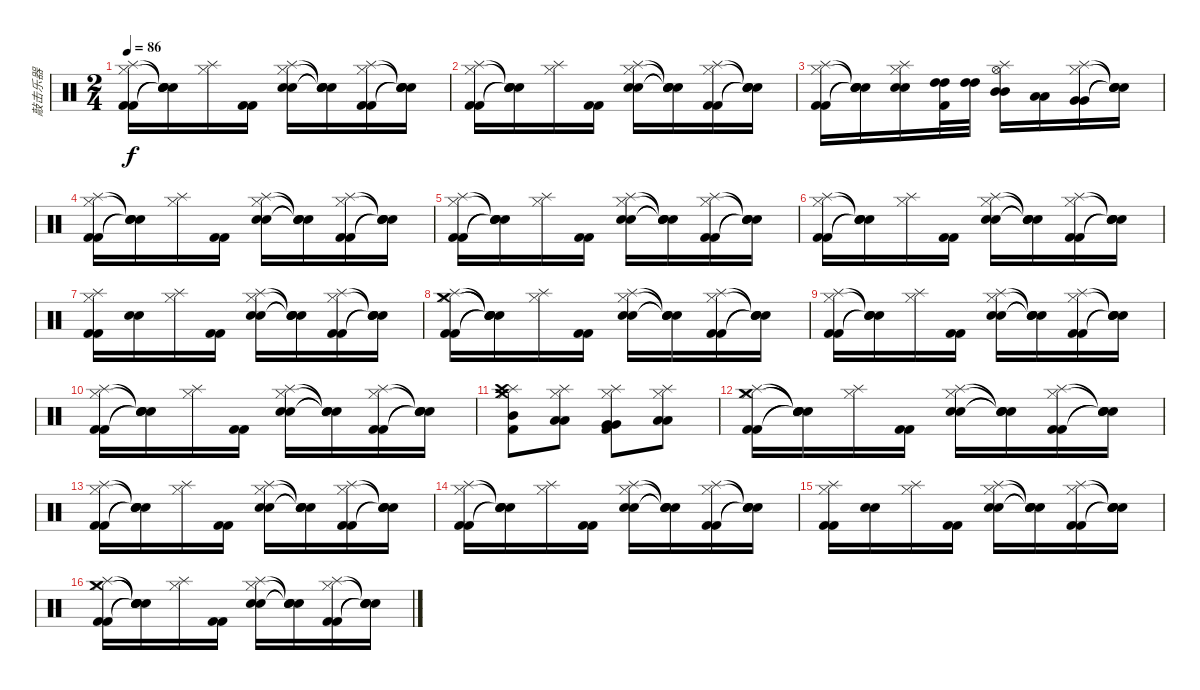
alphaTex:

\track ("敲击乐器" "敲击乐器") {instrument percussion}
\staff {score}
\articulation defaults
\ts (2 4)
\tempo 86
\clef neutral
\ks c
("Hi-Hat (closed)" "Splash (hit)" "Kick (hit) 2" "Kick (hit) 2").16{dy f} ("Snare (hit)"{t} "Snare (hit)"{t} "Snare (hit)"{t} "Snare (hit)"{t}).16 ("Hi-Hat (closed)" "Splash (hit)").16 ("Kick (hit) 2" "Kick (hit) 2").16 ("Hi-Hat (closed)" "Splash (hit)" "Electric Snare (hit)" "Electric Snare (hit)").16 ("Snare (hit)"{t} "Snare (hit)"{t} "Snare (hit)"{t} "Snare (hit)"{t}).16 ("Hi-Hat (closed)" "Splash (hit)" "Kick (hit) 2" "Kick (hit) 2").16 ("Snare (hit)"{t} "Snare (hit)"{t} "Snare (hit)"{t} "Snare (hit)"{t}).16 |
("Hi-Hat (closed)" "Splash (hit)" "Kick (hit) 2" "Kick (hit) 2").16 ("Snare (hit)"{t} "Snare (hit)"{t} "Snare (hit)"{t} "Snare (hit)"{t}).16 ("Hi-Hat (closed)" "Splash (hit)").16 ("Kick (hit) 2" "Kick (hit) 2").16 ("Hi-Hat (closed)" "Splash (hit)" "Electric Snare (hit)" "Electric Snare (hit)").16 ("Snare (hit)"{t} "Snare (hit)"{t} "Snare (hit)"{t} "Snare (hit)"{t}).16 ("Hi-Hat (closed)" "Splash (hit)" "Kick (hit) 2" "Kick (hit) 2").16 ("Snare (hit)"{t} "Snare (hit)"{t} "Snare (hit)"{t} "Snare (hit)"{t}).16 |
("Hi-Hat (closed)" "Splash (hit)" "Kick (hit) 2" "Kick (hit) 2").16 ("Snare (hit)"{t} "Snare (hit)"{t} "Snare (hit)"{t} "Snare (hit)"{t}).16 ("Hi-Hat (closed)" "Splash (hit)" "Electric Snare (hit)" "Electric Snare (hit)").16 ("High Tom (hit)" "High Tom (hit)" "Kick (hit) 2").32 ("High Tom (hit)" "High Tom (hit)").32 ("Hi-Hat (open)" "Splash (hit)" "Mid Tom (hit)" "Mid Tom (hit)").16 ("Low Tom (hit)" "Low Tom (hit)").16 ("Hi-Hat (closed)" "Splash (hit)" "Very Low Tom (hit)" "Very Low Tom (hit)").16 ("Snare (hit)"{t} "Snare (hit)"{t} "Snare (hit)"{t} "Snare (hit)"{t}).16 |
("Hi-Hat (closed)" "Splash (hit)" "Kick (hit) 2" "Kick (hit) 2").16 ("Snare (hit)"{t} "Snare (hit)"{t} "Snare (hit)"{t} "Snare (hit)"{t}).16 ("Hi-Hat (closed)" "Splash (hit)").16 ("Kick (hit) 2" "Kick (hit) 2").16 ("Hi-Hat (closed)" "Splash (hit)" "Electric Snare (hit)" "Electric Snare (hit)").16 ("Snare (hit)"{t} "Snare (hit)"{t} "Snare (hit)"{t} "Snare (hit)"{t}).16 ("Hi-Hat (closed)" "Splash (hit)" "Kick (hit) 2" "Kick (hit) 2").16 ("Snare (hit)"{t} "Snare (hit)"{t} "Snare (hit)"{t} "Snare (hit)"{t}).16 |
("Hi-Hat (closed)" "Splash (hit)" "Kick (hit) 2" "Kick (hit) 2").16 ("Snare (hit)"{t} "Snare (hit)"{t} "Snare (hit)"{t} "Snare (hit)"{t}).16 ("Hi-Hat (closed)" "Splash (hit)").16 ("Kick (hit) 2" "Kick (hit) 2").16 ("Hi-Hat (closed)" "Splash (hit)" "Electric Snare (hit)" "Electric Snare (hit)").16 ("Snare (hit)"{t} "Snare (hit)"{t} "Snare (hit)"{t} "Snare (hit)"{t}).16 ("Hi-Hat (closed)" "Splash (hit)" "Kick (hit) 2" "Kick (hit) 2").16 ("Snare (hit)"{t} "Snare (hit)"{t} "Snare (hit)"{t} "Snare (hit)"{t}).16 |
("Hi-Hat (closed)" "Splash (hit)" "Kick (hit) 2" "Kick (hit) 2").16 ("Snare (hit)"{t} "Snare (hit)"{t} "Snare (hit)"{t} "Snare (hit)"{t}).16 ("Hi-Hat (closed)" "Splash (hit)").16 ("Kick (hit) 2" "Kick (hit) 2").16 ("Hi-Hat (closed)" "Splash (hit)" "Electric Snare (hit)" "Electric Snare (hit)").16 ("Snare (hit)"{t} "Snare (hit)"{t} "Snare (hit)"{t} "Snare (hit)"{t}).16 ("Hi-Hat (closed)" "Splash (hit)" "Kick (hit) 2" "Kick (hit) 2").16 ("Snare (hit)"{t} "Snare (hit)"{t} "Snare (hit)"{t} "Snare (hit)"{t}).16 |
("Hi-Hat (closed)" "Splash (hit)" "Kick (hit) 2" "Kick (hit) 2").16 ("Electric Snare (hit)" "Electric Snare (hit)").16 ("Hi-Hat (closed)" "Splash (hit)").16 ("Kick (hit) 2" "Kick (hit) 2").16 ("Hi-Hat (closed)" "Splash (hit)" "Electric Snare (hit)" "Electric Snare (hit)").16 ("Snare (hit)"{t} "Snare (hit)"{t} "Snare (hit)"{t} "Snare (hit)"{t}).16 ("Hi-Hat (closed)" "Splash (hit)" "Kick (hit) 2" "Kick (hit) 2").16 ("Snare (hit)"{t} "Snare (hit)"{t} "Snare (hit)"{t} "Snare (hit)"{t}).16 |
("Hi-Hat (closed)" "Splash (hit)" "Crash medium (hit)" "Kick (hit) 2" "Kick (hit) 2").16 ("Snare (hit)"{t} "Snare (hit)"{t} "Snare (hit)"{t} "Snare (hit)"{t} "Snare (hit)"{t}).16 ("Hi-Hat (closed)" "Splash (hit)").16 ("Kick (hit) 2" "Kick (hit) 2").16 ("Hi-Hat (closed)" "Splash (hit)" "Electric Snare (hit)" "Electric Snare (hit)").16 ("Snare (hit)"{t} "Snare (hit)"{t} "Snare (hit)"{t} "Snare (hit)"{t}).16 ("Hi-Hat (closed)" "Splash (hit)" "Kick (hit) 2" "Kick (hit) 2").16 ("Snare (hit)"{t} "Snare (hit)"{t} "Snare (hit)"{t} "Snare (hit)"{t}).16 |
("Hi-Hat (closed)" "Splash (hit)" "Kick (hit) 2" "Kick (hit) 2").16 ("Snare (hit)"{t} "Snare (hit)"{t} "Snare (hit)"{t} "Snare (hit)"{t}).16 ("Hi-Hat (closed)" "Splash (hit)").16 ("Kick (hit) 2" "Kick (hit) 2").16 ("Hi-Hat (closed)" "Splash (hit)" "Electric Snare (hit)" "Electric Snare (hit)").16 ("Snare (hit)"{t} "Snare (hit)"{t} "Snare (hit)"{t} "Snare (hit)"{t}).16 ("Hi-Hat (closed)" "Splash (hit)" "Kick (hit) 2" "Kick (hit) 2").16 ("Snare (hit)"{t} "Snare (hit)"{t} "Snare (hit)"{t} "Snare (hit)"{t}).16 |
("Hi-Hat (closed)" "Splash (hit)" "Kick (hit) 2" "Kick (hit) 2").16 ("Snare (hit)"{t} "Snare (hit)"{t} "Snare (hit)"{t} "Snare (hit)"{t}).16 ("Hi-Hat (closed)" "Splash (hit)").16 ("Kick (hit) 2" "Kick (hit) 2").16 ("Hi-Hat (closed)" "Splash (hit)" "Electric Snare (hit)" "Electric Snare (hit)").16 ("Snare (hit)"{t} "Snare (hit)"{t} "Snare (hit)"{t} "Snare (hit)"{t}).16 ("Hi-Hat (closed)" "Splash (hit)" "Kick (hit) 2" "Kick (hit) 2").16 ("Snare (hit)"{t} "Snare (hit)"{t} "Snare (hit)"{t} "Snare (hit)"{t}).16 |
("Hi-Hat (closed)" "Splash (hit)" "Crash medium (hit)" "Crash high (hit)" "Mid Tom (hit)" "Kick (hit) 2").8 ("Hi-Hat (closed)" "Splash (hit)" "Low Tom (hit)" "Low Tom (hit)").8 ("Hi-Hat (closed)" "Splash (hit)" "Very Low Tom (hit)" "Very Low Tom (hit)" "Kick (hit) 2").8 ("Hi-Hat (closed)" "Splash (hit)" "Low Floor Tom (hit)" "Low Floor Tom (hit)").8 |
("Hi-Hat (closed)" "Splash (hit)" "Crash medium (hit)" "Kick (hit) 2" "Kick (hit) 2").16 ("Snare (hit)"{t} "Snare (hit)"{t} "Snare (hit)"{t} "Snare (hit)"{t} "Snare (hit)"{t}).16 ("Hi-Hat (closed)" "Splash (hit)").16 ("Kick (hit) 2" "Kick (hit) 2").16 ("Hi-Hat (closed)" "Splash (hit)" "Electric Snare (hit)" "Electric Snare (hit)").16 ("Snare (hit)"{t} "Snare (hit)"{t} "Snare (hit)"{t} "Snare (hit)"{t}).16 ("Hi-Hat (closed)" "Splash (hit)" "Kick (hit) 2" "Kick (hit) 2").16 ("Snare (hit)"{t} "Snare (hit)"{t} "Snare (hit)"{t} "Snare (hit)"{t}).16 |
("Hi-Hat (closed)" "Splash (hit)" "Kick (hit) 2" "Kick (hit) 2").16 ("Snare (hit)"{t} "Snare (hit)"{t} "Snare (hit)"{t} "Snare (hit)"{t}).16 ("Hi-Hat (closed)" "Splash (hit)").16 ("Kick (hit) 2" "Kick (hit) 2").16 ("Hi-Hat (closed)" "Splash (hit)" "Electric Snare (hit)" "Electric Snare (hit)").16 ("Snare (hit)"{t} "Snare (hit)"{t} "Snare (hit)"{t} "Snare (hit)"{t}).16 ("Hi-Hat (closed)" "Splash (hit)" "Kick (hit) 2" "Kick (hit) 2").16 ("Snare (hit)"{t} "Snare (hit)"{t} "Snare (hit)"{t} "Snare (hit)"{t}).16 |
("Hi-Hat (closed)" "Splash (hit)" "Kick (hit) 2" "Kick (hit) 2").16 ("Snare (hit)"{t} "Snare (hit)"{t} "Snare (hit)"{t} "Snare (hit)"{t}).16 ("Hi-Hat (closed)" "Splash (hit)").16 ("Kick (hit) 2" "Kick (hit) 2").16 ("Hi-Hat (closed)" "Splash (hit)" "Electric Snare (hit)" "Electric Snare (hit)").16 ("Snare (hit)"{t} "Snare (hit)"{t} "Snare (hit)"{t} "Snare (hit)"{t}).16 ("Hi-Hat (closed)" "Splash (hit)" "Kick (hit) 2" "Kick (hit) 2").16 ("Snare (hit)"{t} "Snare (hit)"{t} "Snare (hit)"{t} "Snare (hit)"{t}).16 |
("Hi-Hat (closed)" "Splash (hit)" "Kick (hit) 2" "Kick (hit) 2").16 ("Electric Snare (hit)" "Electric Snare (hit)").16 ("Hi-Hat (closed)" "Splash (hit)").16 ("Kick (hit) 2" "Kick (hit) 2").16 ("Hi-Hat (closed)" "Splash (hit)" "Electric Snare (hit)" "Electric Snare (hit)").16 ("Snare (hit)"{t} "Snare (hit)"{t} "Snare (hit)"{t} "Snare (hit)"{t}).16 ("Hi-Hat (closed)" "Splash (hit)" "Kick (hit) 2" "Kick (hit) 2").16 ("Snare (hit)"{t} "Snare (hit)"{t} "Snare (hit)"{t} "Snare (hit)"{t}).16 |
("Hi-Hat (closed)" "Splash (hit)" "Crash medium (hit)" "Kick (hit) 2" "Kick (hit) 2").16 ("Snare (hit)"{t} "Snare (hit)"{t} "Snare (hit)"{t} "Snare (hit)"{t} "Snare (hit)"{t}).16 ("Hi-Hat (closed)" "Splash (hit)").16 ("Kick (hit) 2" "Kick (hit) 2").16 ("Hi-Hat (closed)" "Splash (hit)" "Electric Snare (hit)" "Electric Snare (hit)").16 ("Snare (hit)"{t} "Snare (hit)"{t} "Snare (hit)"{t} "Snare (hit)"{t}).16 ("Hi-Hat (closed)" "Splash (hit)" "Kick (hit) 2" "Kick (hit) 2").16 ("Snare (hit)"{t} "Snare (hit)"{t} "Snare (hit)"{t} "Snare (hit)"{t}).16
